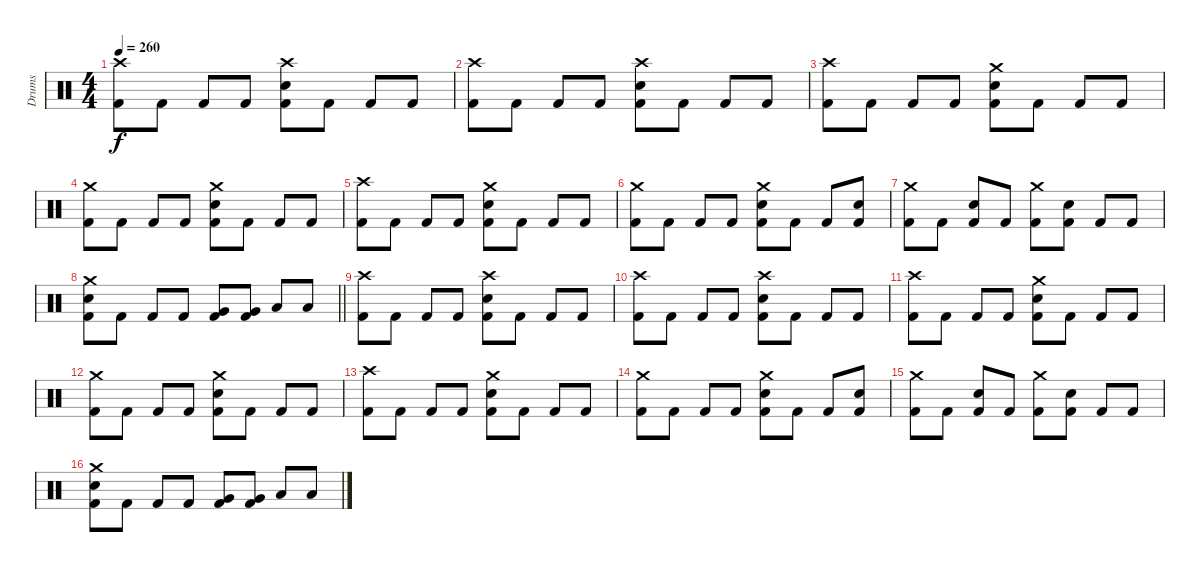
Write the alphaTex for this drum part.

\track ("Drums" "Drums") {instrument percussion}
\staff {score}
\articulation defaults
\ts (4 4)
\tempo 260
\clef neutral
\ks c
("Crash high (hit)" "Kick (hit) 2").8{dy f} "Kick (hit) 2".8 "Kick (hit) 2".8 "Kick (hit) 2".8 ("Crash high (hit)" "Electric Snare (hit)" "Kick (hit) 2").8 "Kick (hit) 2".8 "Kick (hit) 2".8 "Kick (hit) 2".8 |
("Crash high (hit)" "Kick (hit) 2").8 "Kick (hit) 2".8 "Kick (hit) 2".8 "Kick (hit) 2".8 ("Crash high (hit)" "Electric Snare (hit)" "Kick (hit) 2").8 "Kick (hit) 2".8 "Kick (hit) 2".8 "Kick (hit) 2".8 |
("Crash high (hit)" "Kick (hit) 2").8 "Kick (hit) 2".8 "Kick (hit) 2".8 "Kick (hit) 2".8 ("Crash medium (hit)" "Electric Snare (hit)" "Kick (hit) 2").8 "Kick (hit) 2".8 "Kick (hit) 2".8 "Kick (hit) 2".8 |
("Crash medium (hit)" "Kick (hit) 2").8 "Kick (hit) 2".8 "Kick (hit) 2".8 "Kick (hit) 2".8 ("Crash medium (hit)" "Electric Snare (hit)" "Kick (hit) 2").8 "Kick (hit) 2".8 "Kick (hit) 2".8 "Kick (hit) 2".8 |
("Crash high (hit)" "Kick (hit) 2").8 "Kick (hit) 2".8 "Kick (hit) 2".8 "Kick (hit) 2".8 ("Crash medium (hit)" "Electric Snare (hit)" "Kick (hit) 2").8 "Kick (hit) 2".8 "Kick (hit) 2".8 "Kick (hit) 2".8 |
("Crash medium (hit)" "Kick (hit) 2").8 "Kick (hit) 2".8 "Kick (hit) 2".8 "Kick (hit) 2".8 ("Crash medium (hit)" "Electric Snare (hit)" "Kick (hit) 2").8 "Kick (hit) 2".8 "Kick (hit) 2".8 ("Electric Snare (hit)" "Kick (hit) 2").8 |
("Crash medium (hit)" "Kick (hit) 2").8 "Kick (hit) 2".8 ("Electric Snare (hit)" "Kick (hit) 2").8 "Kick (hit) 2".8 ("Crash medium (hit)" "Kick (hit) 2").8 ("Electric Snare (hit)" "Kick (hit) 2").8 "Kick (hit) 2".8 "Kick (hit) 2".8 |
\barLineRight lightlight
("Crash medium (hit)" "Electric Snare (hit)" "Kick (hit) 2").8 "Kick (hit) 2".8 "Kick (hit) 2".8 "Kick (hit) 2".8 ("Very Low Tom (hit)" "Kick (hit) 2").8 ("Very Low Tom (hit)" "Kick (hit) 2").8 "Low Floor Tom (hit)".8 "Low Floor Tom (hit)".8 |
("Crash high (hit)" "Kick (hit) 2").8 "Kick (hit) 2".8 "Kick (hit) 2".8 "Kick (hit) 2".8 ("Crash high (hit)" "Electric Snare (hit)" "Kick (hit) 2").8 "Kick (hit) 2".8 "Kick (hit) 2".8 "Kick (hit) 2".8 |
("Crash high (hit)" "Kick (hit) 2").8 "Kick (hit) 2".8 "Kick (hit) 2".8 "Kick (hit) 2".8 ("Crash high (hit)" "Electric Snare (hit)" "Kick (hit) 2").8 "Kick (hit) 2".8 "Kick (hit) 2".8 "Kick (hit) 2".8 |
("Crash high (hit)" "Kick (hit) 2").8 "Kick (hit) 2".8 "Kick (hit) 2".8 "Kick (hit) 2".8 ("Crash medium (hit)" "Electric Snare (hit)" "Kick (hit) 2").8 "Kick (hit) 2".8 "Kick (hit) 2".8 "Kick (hit) 2".8 |
("Crash medium (hit)" "Kick (hit) 2").8 "Kick (hit) 2".8 "Kick (hit) 2".8 "Kick (hit) 2".8 ("Crash medium (hit)" "Electric Snare (hit)" "Kick (hit) 2").8 "Kick (hit) 2".8 "Kick (hit) 2".8 "Kick (hit) 2".8 |
("Crash high (hit)" "Kick (hit) 2").8 "Kick (hit) 2".8 "Kick (hit) 2".8 "Kick (hit) 2".8 ("Crash medium (hit)" "Electric Snare (hit)" "Kick (hit) 2").8 "Kick (hit) 2".8 "Kick (hit) 2".8 "Kick (hit) 2".8 |
("Crash medium (hit)" "Kick (hit) 2").8 "Kick (hit) 2".8 "Kick (hit) 2".8 "Kick (hit) 2".8 ("Crash medium (hit)" "Electric Snare (hit)" "Kick (hit) 2").8 "Kick (hit) 2".8 "Kick (hit) 2".8 ("Electric Snare (hit)" "Kick (hit) 2").8 |
("Crash medium (hit)" "Kick (hit) 2").8 "Kick (hit) 2".8 ("Electric Snare (hit)" "Kick (hit) 2").8 "Kick (hit) 2".8 ("Crash medium (hit)" "Kick (hit) 2").8 ("Electric Snare (hit)" "Kick (hit) 2").8 "Kick (hit) 2".8 "Kick (hit) 2".8 |
("Crash medium (hit)" "Electric Snare (hit)" "Kick (hit) 2").8 "Kick (hit) 2".8 "Kick (hit) 2".8 "Kick (hit) 2".8 ("Very Low Tom (hit)" "Kick (hit) 2").8 ("Very Low Tom (hit)" "Kick (hit) 2").8 "Low Floor Tom (hit)".8 "Low Floor Tom (hit)".8
